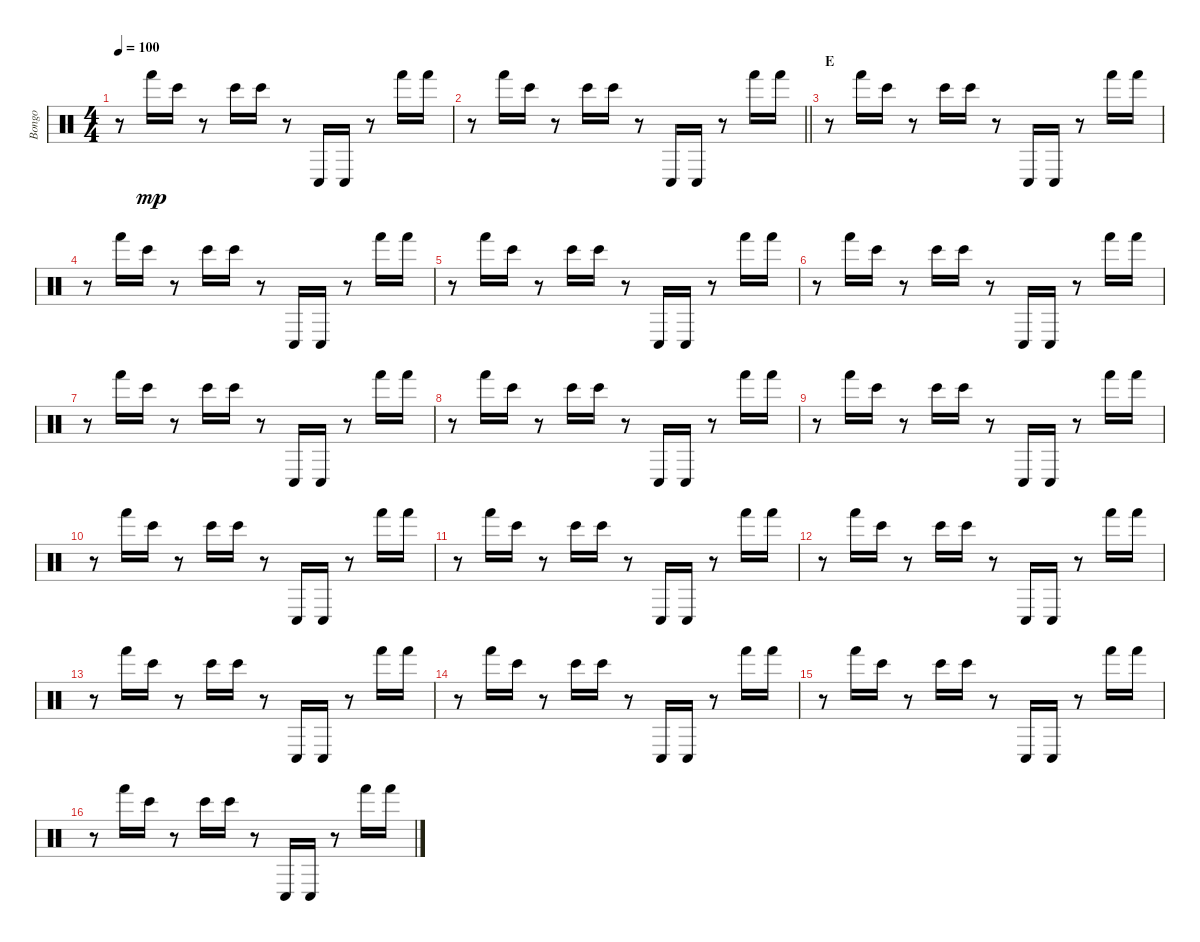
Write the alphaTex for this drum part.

\track ("Bongo" "Bongo") {instrument percussion}
\staff {score}
\articulation defaults
\ts (4 4)
\tempo 100
\clef neutral
\ks c
r.8{dy mp} "Hand (hit)".16 "Bongo High (hit)".16 r.8 "Bongo High (hit)".16 "Bongo High (hit)".16 r.8 "Conga low (hit)".16 "Conga low (hit)".16 r.8 "Hand (hit)".16 "Hand (hit)".16 |
\barLineRight lightlight
r.8 "Hand (hit)".16 "Bongo High (hit)".16 r.8 "Bongo High (hit)".16 "Bongo High (hit)".16 r.8 "Conga low (hit)".16 "Conga low (hit)".16 r.8 "Hand (hit)".16 "Hand (hit)".16 |
\section ("" "E")
r.8 "Hand (hit)".16 "Bongo High (hit)".16 r.8 "Bongo High (hit)".16 "Bongo High (hit)".16 r.8 "Conga low (hit)".16 "Conga low (hit)".16 r.8 "Hand (hit)".16 "Hand (hit)".16 |
r.8 "Hand (hit)".16 "Bongo High (hit)".16 r.8 "Bongo High (hit)".16 "Bongo High (hit)".16 r.8 "Conga low (hit)".16 "Conga low (hit)".16 r.8 "Hand (hit)".16 "Hand (hit)".16 |
r.8 "Hand (hit)".16 "Bongo High (hit)".16 r.8 "Bongo High (hit)".16 "Bongo High (hit)".16 r.8 "Conga low (hit)".16 "Conga low (hit)".16 r.8 "Hand (hit)".16 "Hand (hit)".16 |
r.8 "Hand (hit)".16 "Bongo High (hit)".16 r.8 "Bongo High (hit)".16 "Bongo High (hit)".16 r.8 "Conga low (hit)".16 "Conga low (hit)".16 r.8 "Hand (hit)".16 "Hand (hit)".16 |
r.8 "Hand (hit)".16 "Bongo High (hit)".16 r.8 "Bongo High (hit)".16 "Bongo High (hit)".16 r.8 "Conga low (hit)".16 "Conga low (hit)".16 r.8 "Hand (hit)".16 "Hand (hit)".16 |
r.8 "Hand (hit)".16 "Bongo High (hit)".16 r.8 "Bongo High (hit)".16 "Bongo High (hit)".16 r.8 "Conga low (hit)".16 "Conga low (hit)".16 r.8 "Hand (hit)".16 "Hand (hit)".16 |
r.8 "Hand (hit)".16 "Bongo High (hit)".16 r.8 "Bongo High (hit)".16 "Bongo High (hit)".16 r.8 "Conga low (hit)".16 "Conga low (hit)".16 r.8 "Hand (hit)".16 "Hand (hit)".16 |
r.8 "Hand (hit)".16 "Bongo High (hit)".16 r.8 "Bongo High (hit)".16 "Bongo High (hit)".16 r.8 "Conga low (hit)".16 "Conga low (hit)".16 r.8 "Hand (hit)".16 "Hand (hit)".16 |
r.8 "Hand (hit)".16 "Bongo High (hit)".16 r.8 "Bongo High (hit)".16 "Bongo High (hit)".16 r.8 "Conga low (hit)".16 "Conga low (hit)".16 r.8 "Hand (hit)".16 "Hand (hit)".16 |
r.8 "Hand (hit)".16 "Bongo High (hit)".16 r.8 "Bongo High (hit)".16 "Bongo High (hit)".16 r.8 "Conga low (hit)".16 "Conga low (hit)".16 r.8 "Hand (hit)".16 "Hand (hit)".16 |
r.8 "Hand (hit)".16 "Bongo High (hit)".16 r.8 "Bongo High (hit)".16 "Bongo High (hit)".16 r.8 "Conga low (hit)".16 "Conga low (hit)".16 r.8 "Hand (hit)".16 "Hand (hit)".16 |
r.8 "Hand (hit)".16 "Bongo High (hit)".16 r.8 "Bongo High (hit)".16 "Bongo High (hit)".16 r.8 "Conga low (hit)".16 "Conga low (hit)".16 r.8 "Hand (hit)".16 "Hand (hit)".16 |
r.8 "Hand (hit)".16 "Bongo High (hit)".16 r.8 "Bongo High (hit)".16 "Bongo High (hit)".16 r.8 "Conga low (hit)".16 "Conga low (hit)".16 r.8 "Hand (hit)".16 "Hand (hit)".16 |
r.8 "Hand (hit)".16 "Bongo High (hit)".16 r.8 "Bongo High (hit)".16 "Bongo High (hit)".16 r.8 "Conga low (hit)".16 "Conga low (hit)".16 r.8 "Hand (hit)".16 "Hand (hit)".16
